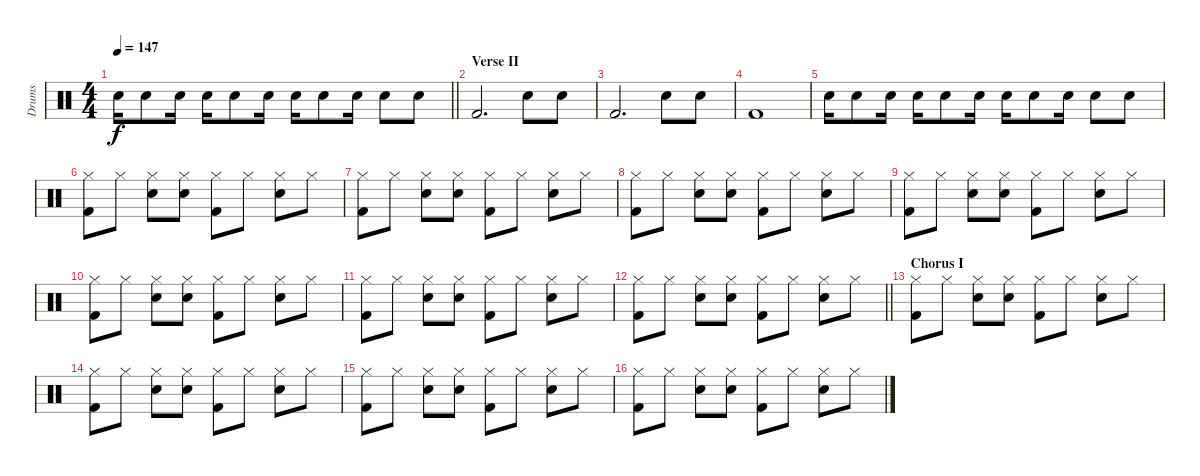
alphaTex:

\track ("Drums" "Drums") {instrument percussion}
\staff {score}
\articulation defaults
\ts (4 4)
\tempo 147
\clef neutral
\barLineRight lightlight
\ks c "Snare (hit) 2".16{dy f} "Snare (hit) 2".8 "Snare (hit) 2".16 "Snare (hit) 2".16 "Snare (hit) 2".8 "Snare (hit) 2".16 "Snare (hit) 2".16 "Snare (hit) 2".8 "Snare (hit) 2".16 "Snare (hit) 2".8 "Snare (hit) 2".8
|
\section ("" "Verse II")
"Kick (hit) 2".2{d} "Snare (hit) 2".8 "Snare (hit) 2".8 |
"Kick (hit) 2".2{d} "Snare (hit) 2".8 "Snare (hit) 2".8 |
"Kick (hit) 2".1 |
"Snare (hit) 2".16 "Snare (hit) 2".8 "Snare (hit) 2".16 "Snare (hit) 2".16 "Snare (hit) 2".8 "Snare (hit) 2".16 "Snare (hit) 2".16 "Snare (hit) 2".8 "Snare (hit) 2".16 "Snare (hit) 2".8 "Snare (hit) 2".8 |
("Hi-Hat (closed)" "Kick (hit) 2").8 "Hi-Hat (closed)".8 ("Hi-Hat (closed)" "Snare (hit) 2").8 ("Hi-Hat (closed)" "Snare (hit) 2").8 ("Hi-Hat (closed)" "Kick (hit) 2").8 "Hi-Hat (closed)".8 ("Hi-Hat (closed)" "Snare (hit) 2").8 "Hi-Hat (closed)".8 |
("Hi-Hat (closed)" "Kick (hit) 2").8 "Hi-Hat (closed)".8 ("Hi-Hat (closed)" "Snare (hit) 2").8 ("Hi-Hat (closed)" "Snare (hit) 2").8 ("Hi-Hat (closed)" "Kick (hit) 2").8 "Hi-Hat (closed)".8 ("Hi-Hat (closed)" "Snare (hit) 2").8 "Hi-Hat (closed)".8 |
("Hi-Hat (closed)" "Kick (hit) 2").8 "Hi-Hat (closed)".8 ("Hi-Hat (closed)" "Snare (hit) 2").8 ("Hi-Hat (closed)" "Snare (hit) 2").8 ("Hi-Hat (closed)" "Kick (hit) 2").8 "Hi-Hat (closed)".8 ("Hi-Hat (closed)" "Snare (hit) 2").8 "Hi-Hat (closed)".8 |
("Hi-Hat (closed)" "Kick (hit) 2").8 "Hi-Hat (closed)".8 ("Hi-Hat (closed)" "Snare (hit) 2").8 ("Hi-Hat (closed)" "Snare (hit) 2").8 ("Hi-Hat (closed)" "Kick (hit) 2").8 "Hi-Hat (closed)".8 ("Hi-Hat (closed)" "Snare (hit) 2").8 "Hi-Hat (closed)".8 |
("Hi-Hat (closed)" "Kick (hit) 2").8 "Hi-Hat (closed)".8 ("Hi-Hat (closed)" "Snare (hit) 2").8 ("Hi-Hat (closed)" "Snare (hit) 2").8 ("Hi-Hat (closed)" "Kick (hit) 2").8 "Hi-Hat (closed)".8 ("Hi-Hat (closed)" "Snare (hit) 2").8 "Hi-Hat (closed)".8 |
("Hi-Hat (closed)" "Kick (hit) 2").8 "Hi-Hat (closed)".8 ("Hi-Hat (closed)" "Snare (hit) 2").8 ("Hi-Hat (closed)" "Snare (hit) 2").8 ("Hi-Hat (closed)" "Kick (hit) 2").8 "Hi-Hat (closed)".8 ("Hi-Hat (closed)" "Snare (hit) 2").8 "Hi-Hat (closed)".8 |
\barLineRight lightlight
("Hi-Hat (closed)" "Kick (hit) 2").8 "Hi-Hat (closed)".8 ("Hi-Hat (closed)" "Snare (hit) 2").8 ("Hi-Hat (closed)" "Snare (hit) 2").8 ("Hi-Hat (closed)" "Kick (hit) 2").8 "Hi-Hat (closed)".8 ("Hi-Hat (closed)" "Snare (hit) 2").8 "Hi-Hat (closed)".8 |
\section ("" "Chorus I")
("Hi-Hat (closed)" "Kick (hit) 2").8 "Hi-Hat (closed)".8 ("Hi-Hat (closed)" "Snare (hit) 2").8 ("Hi-Hat (closed)" "Snare (hit) 2").8 ("Hi-Hat (closed)" "Kick (hit) 2").8 "Hi-Hat (closed)".8 ("Hi-Hat (closed)" "Snare (hit) 2").8 "Hi-Hat (closed)".8 |
("Hi-Hat (closed)" "Kick (hit) 2").8 "Hi-Hat (closed)".8 ("Hi-Hat (closed)" "Snare (hit) 2").8 ("Hi-Hat (closed)" "Snare (hit) 2").8 ("Hi-Hat (closed)" "Kick (hit) 2").8 "Hi-Hat (closed)".8 ("Hi-Hat (closed)" "Snare (hit) 2").8 "Hi-Hat (closed)".8 |
("Hi-Hat (closed)" "Kick (hit) 2").8 "Hi-Hat (closed)".8 ("Hi-Hat (closed)" "Snare (hit) 2").8 ("Hi-Hat (closed)" "Snare (hit) 2").8 ("Hi-Hat (closed)" "Kick (hit) 2").8 "Hi-Hat (closed)".8 ("Hi-Hat (closed)" "Snare (hit) 2").8 "Hi-Hat (closed)".8 |
("Hi-Hat (closed)" "Kick (hit) 2").8 "Hi-Hat (closed)".8 ("Hi-Hat (closed)" "Snare (hit) 2").8 ("Hi-Hat (closed)" "Snare (hit) 2").8 ("Hi-Hat (closed)" "Kick (hit) 2").8 "Hi-Hat (closed)".8 ("Hi-Hat (closed)" "Snare (hit) 2").8 "Hi-Hat (closed)".8
